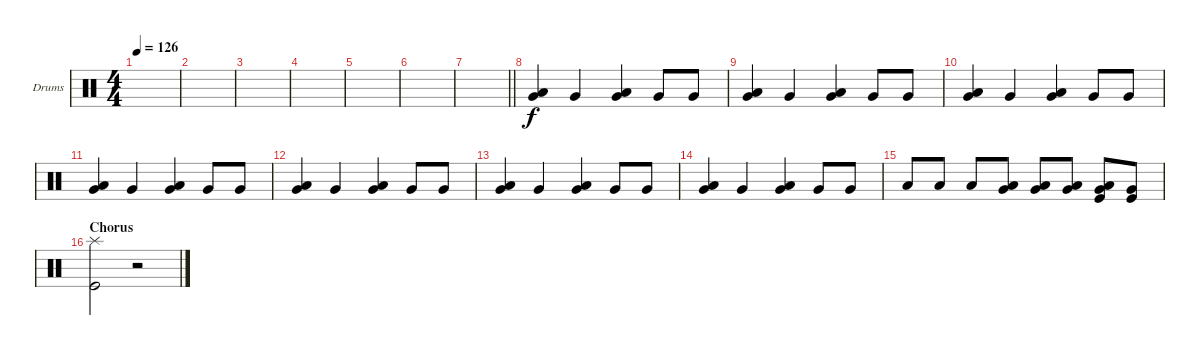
\defaultSystemsLayout 4
\bracketExtendMode groupsimilarinstruments
\firstSystemTrackNameOrientation horizontal
\otherSystemsTrackNameOrientation horizontal
\chordDiagramsInScore
\track ("Drumkit" "Drums") {instrument percussion}
\staff {score}
\articulation defaults
\ts (4 4)
\tempo 126
\clef neutral
\scale
0.333333
\ks c
|
\scale
0.333333 |
\scale
0.333333 |
\scale
0.333333 |
\scale
0.333333 |
\scale
0.333333 |
\scale
0.333333
\barLineRight lightlight
|
\scale
0.333333 ("Very Low Tom (hit)" "Low Tom (hit)").4 "Very Low Tom (hit)".4 ("Very Low Tom (hit)" "Low Tom (hit)").4 "Very Low Tom (hit)".8 "Very Low Tom (hit)".8 |
\scale
0.333333 ("Very Low Tom (hit)" "Low Tom (hit)").4 "Very Low Tom (hit)".4 ("Very Low Tom (hit)" "Low Tom (hit)").4 "Very Low Tom (hit)".8 "Very Low Tom (hit)".8 |
\scale
0.333333 ("Very Low Tom (hit)" "Low Tom (hit)").4 "Very Low Tom (hit)".4 ("Very Low Tom (hit)" "Low Tom (hit)").4 "Very Low Tom (hit)".8 "Very Low Tom (hit)".8 |
\scale
0.333333 ("Very Low Tom (hit)" "Low Tom (hit)").4 "Very Low Tom (hit)".4 ("Very Low Tom (hit)" "Low Tom (hit)").4 "Very Low Tom (hit)".8 "Very Low Tom (hit)".8 |
\scale
0.333333 ("Very Low Tom (hit)" "Low Tom (hit)").4 "Very Low Tom (hit)".4 ("Very Low Tom (hit)" "Low Tom (hit)").4 "Very Low Tom (hit)".8 "Very Low Tom (hit)".8 |
\scale
0.333333 ("Very Low Tom (hit)" "Low Tom (hit)").4 "Very Low Tom (hit)".4 ("Very Low Tom (hit)" "Low Tom (hit)").4 "Very Low Tom (hit)".8 "Very Low Tom (hit)".8 |
\scale
0.333333 ("Very Low Tom (hit)" "Low Tom (hit)").4 "Very Low Tom (hit)".4 ("Very Low Tom (hit)" "Low Tom (hit)").4 "Very Low Tom (hit)".8 "Very Low Tom (hit)".8 |
\scale
0.333333 "Low Tom (hit)".8 "Low Tom (hit)".8 "Low Tom (hit)".8 ("Low Tom (hit)" "Very Low Tom (hit)").8 ("Very Low Tom (hit)" "Low Tom (hit)").8 ("Very Low Tom (hit)" "Low Tom (hit)").8 ("Very Low Tom (hit)" "Kick (hit)" "Low Tom (hit)").8 ("Kick (hit)" "Very Low Tom (hit)").8 |
\section ("" "Chorus")
\scale
0.333333 ("Kick (hit)" "Splash (hit)").2 r.2
